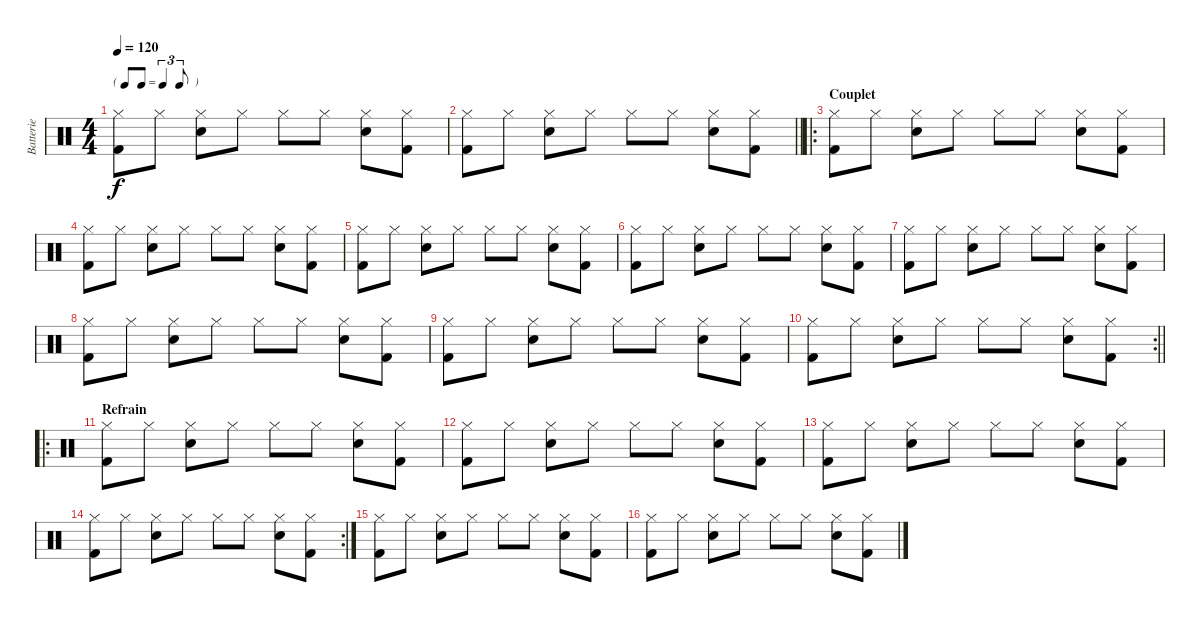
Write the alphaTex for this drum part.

\track ("Batterie" "Batterie") {instrument percussion}
\staff {score}
\articulation defaults
\ts (4 4)
\tf triplet8th
\tempo 120
\clef neutral
\ks c
("Kick (hit) 2" "Hi-Hat (closed)").8{dy f} "Hi-Hat (closed)".8 ("Hi-Hat (closed)" "Snare (hit) 2").8 "Hi-Hat (closed)".8 "Hi-Hat (closed)".8 "Hi-Hat (closed)".8 ("Snare (hit) 2" "Hi-Hat (closed)").8 ("Hi-Hat (closed)" "Kick (hit) 2").8 |
\barLineRight lightlight
("Kick (hit) 2" "Hi-Hat (closed)").8 "Hi-Hat (closed)".8 ("Hi-Hat (closed)" "Snare (hit) 2").8 "Hi-Hat (closed)".8 "Hi-Hat (closed)".8 "Hi-Hat (closed)".8 ("Snare (hit) 2" "Hi-Hat (closed)").8 ("Hi-Hat (closed)" "Kick (hit) 2").8 |
\ro
\section ("" "Couplet")
("Kick (hit) 2" "Hi-Hat (closed)").8 "Hi-Hat (closed)".8 ("Hi-Hat (closed)" "Snare (hit) 2").8 "Hi-Hat (closed)".8 "Hi-Hat (closed)".8 "Hi-Hat (closed)".8 ("Snare (hit) 2" "Hi-Hat (closed)").8 ("Hi-Hat (closed)" "Kick (hit) 2").8 |
("Kick (hit) 2" "Hi-Hat (closed)").8 "Hi-Hat (closed)".8 ("Hi-Hat (closed)" "Snare (hit) 2").8 "Hi-Hat (closed)".8 "Hi-Hat (closed)".8 "Hi-Hat (closed)".8 ("Snare (hit) 2" "Hi-Hat (closed)").8 ("Hi-Hat (closed)" "Kick (hit) 2").8 |
("Kick (hit) 2" "Hi-Hat (closed)").8 "Hi-Hat (closed)".8 ("Hi-Hat (closed)" "Snare (hit) 2").8 "Hi-Hat (closed)".8 "Hi-Hat (closed)".8 "Hi-Hat (closed)".8 ("Snare (hit) 2" "Hi-Hat (closed)").8 ("Hi-Hat (closed)" "Kick (hit) 2").8 |
("Kick (hit) 2" "Hi-Hat (closed)").8 "Hi-Hat (closed)".8 ("Hi-Hat (closed)" "Snare (hit) 2").8 "Hi-Hat (closed)".8 "Hi-Hat (closed)".8 "Hi-Hat (closed)".8 ("Snare (hit) 2" "Hi-Hat (closed)").8 ("Hi-Hat (closed)" "Kick (hit) 2").8 |
("Kick (hit) 2" "Hi-Hat (closed)").8 "Hi-Hat (closed)".8 ("Hi-Hat (closed)" "Snare (hit) 2").8 "Hi-Hat (closed)".8 "Hi-Hat (closed)".8 "Hi-Hat (closed)".8 ("Snare (hit) 2" "Hi-Hat (closed)").8 ("Hi-Hat (closed)" "Kick (hit) 2").8 |
("Kick (hit) 2" "Hi-Hat (closed)").8 "Hi-Hat (closed)".8 ("Hi-Hat (closed)" "Snare (hit) 2").8 "Hi-Hat (closed)".8 "Hi-Hat (closed)".8 "Hi-Hat (closed)".8 ("Snare (hit) 2" "Hi-Hat (closed)").8 ("Hi-Hat (closed)" "Kick (hit) 2").8 |
("Kick (hit) 2" "Hi-Hat (closed)").8 "Hi-Hat (closed)".8 ("Hi-Hat (closed)" "Snare (hit) 2").8 "Hi-Hat (closed)".8 "Hi-Hat (closed)".8 "Hi-Hat (closed)".8 ("Snare (hit) 2" "Hi-Hat (closed)").8 ("Hi-Hat (closed)" "Kick (hit) 2").8 |
\rc 2
\barLineRight lightlight
("Kick (hit) 2" "Hi-Hat (closed)").8 "Hi-Hat (closed)".8 ("Hi-Hat (closed)" "Snare (hit) 2").8 "Hi-Hat (closed)".8 "Hi-Hat (closed)".8 "Hi-Hat (closed)".8 ("Snare (hit) 2" "Hi-Hat (closed)").8 ("Hi-Hat (closed)" "Kick (hit) 2").8 |
\ro
\section ("" "Refrain")
("Kick (hit) 2" "Hi-Hat (closed)").8 "Hi-Hat (closed)".8 ("Hi-Hat (closed)" "Snare (hit) 2").8 "Hi-Hat (closed)".8 "Hi-Hat (closed)".8 "Hi-Hat (closed)".8 ("Snare (hit) 2" "Hi-Hat (closed)").8 ("Hi-Hat (closed)" "Kick (hit) 2").8 |
("Kick (hit) 2" "Hi-Hat (closed)").8 "Hi-Hat (closed)".8 ("Hi-Hat (closed)" "Snare (hit) 2").8 "Hi-Hat (closed)".8 "Hi-Hat (closed)".8 "Hi-Hat (closed)".8 ("Snare (hit) 2" "Hi-Hat (closed)").8 ("Hi-Hat (closed)" "Kick (hit) 2").8 |
("Kick (hit) 2" "Hi-Hat (closed)").8 "Hi-Hat (closed)".8 ("Hi-Hat (closed)" "Snare (hit) 2").8 "Hi-Hat (closed)".8 "Hi-Hat (closed)".8 "Hi-Hat (closed)".8 ("Snare (hit) 2" "Hi-Hat (closed)").8 ("Hi-Hat (closed)" "Kick (hit) 2").8 |
\rc 2
("Kick (hit) 2" "Hi-Hat (closed)").8 "Hi-Hat (closed)".8 ("Hi-Hat (closed)" "Snare (hit) 2").8 "Hi-Hat (closed)".8 "Hi-Hat (closed)".8 "Hi-Hat (closed)".8 ("Snare (hit) 2" "Hi-Hat (closed)").8 ("Hi-Hat (closed)" "Kick (hit) 2").8 |
("Kick (hit) 2" "Hi-Hat (closed)").8 "Hi-Hat (closed)".8 ("Hi-Hat (closed)" "Snare (hit) 2").8 "Hi-Hat (closed)".8 "Hi-Hat (closed)".8 "Hi-Hat (closed)".8 ("Snare (hit) 2" "Hi-Hat (closed)").8 ("Hi-Hat (closed)" "Kick (hit) 2").8 |
("Kick (hit) 2" "Hi-Hat (closed)").8 "Hi-Hat (closed)".8 ("Hi-Hat (closed)" "Snare (hit) 2").8 "Hi-Hat (closed)".8 "Hi-Hat (closed)".8 "Hi-Hat (closed)".8 ("Snare (hit) 2" "Hi-Hat (closed)").8 ("Hi-Hat (closed)" "Kick (hit) 2").8
